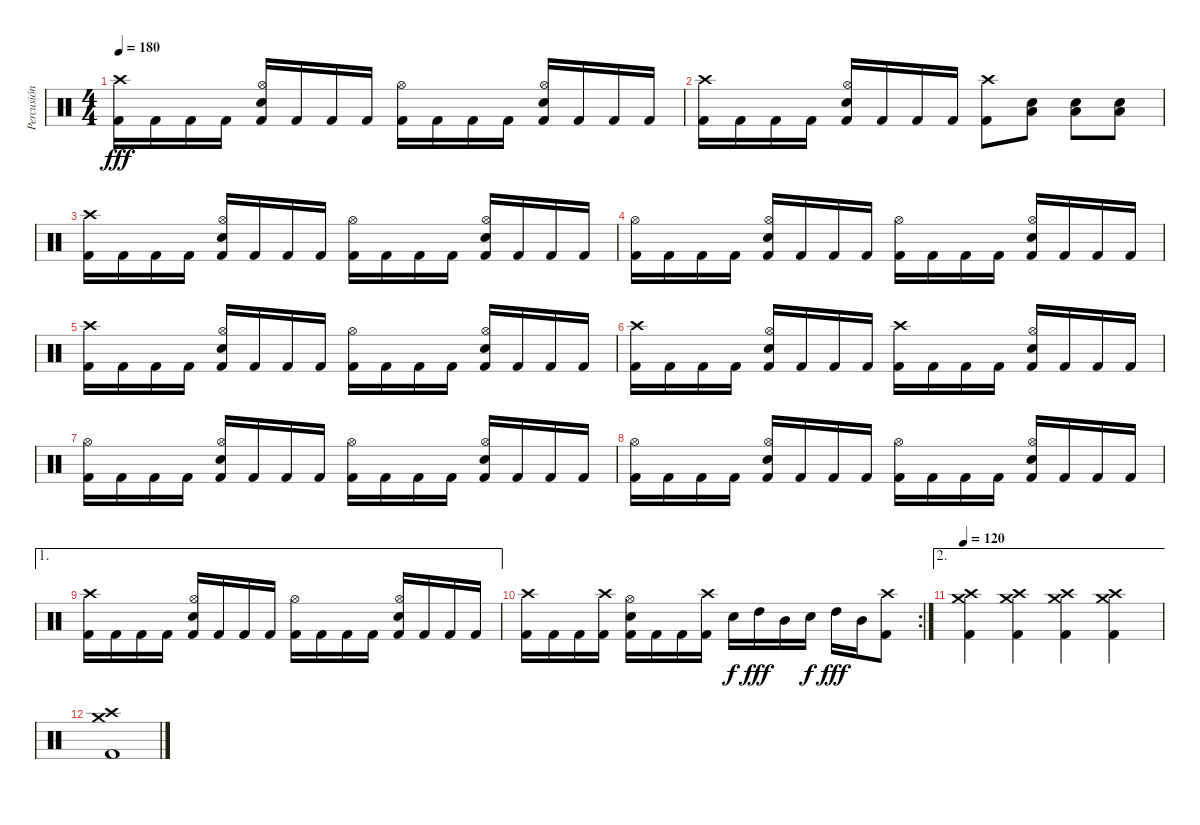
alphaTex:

\track ("Percusión" "Percusión") {instrument percussion}
\staff {score}
\articulation defaults
\ts (4 4)
\tempo 180
\clef neutral
\ks c
("Crash high (hit)" "Kick (hit) 2").16{dy fff} "Kick (hit) 2".16 "Kick (hit) 2".16 "Kick (hit) 2".16 ("Hi-Hat (open)" "Electric Snare (hit)" "Kick (hit) 2").16 "Kick (hit) 2".16 "Kick (hit) 2".16 "Kick (hit) 2".16 ("Hi-Hat (open)" "Kick (hit) 2").16 "Kick (hit) 2".16 "Kick (hit) 2".16 "Kick (hit) 2".16 ("Hi-Hat (open)" "Electric Snare (hit)" "Kick (hit) 2").16 "Kick (hit) 2".16 "Kick (hit) 2".16 "Kick (hit) 2".16 |
("Crash high (hit)" "Kick (hit) 2").16 "Kick (hit) 2".16 "Kick (hit) 2".16 "Kick (hit) 2".16 ("Hi-Hat (open)" "Electric Snare (hit)" "Kick (hit) 2").16 "Kick (hit) 2".16 "Kick (hit) 2".16 "Kick (hit) 2".16 ("Crash high (hit)" "Kick (hit) 2").8 ("Low Tom (hit)" "Electric Snare (hit)").8 ("Low Tom (hit)" "Electric Snare (hit)").8 ("Low Tom (hit)" "Electric Snare (hit)").8 |
("Crash high (hit)" "Kick (hit) 2").16 "Kick (hit) 2".16 "Kick (hit) 2".16 "Kick (hit) 2".16 ("Hi-Hat (open)" "Electric Snare (hit)" "Kick (hit) 2").16 "Kick (hit) 2".16 "Kick (hit) 2".16 "Kick (hit) 2".16 ("Hi-Hat (open)" "Kick (hit) 2").16 "Kick (hit) 2".16 "Kick (hit) 2".16 "Kick (hit) 2".16 ("Hi-Hat (open)" "Electric Snare (hit)" "Kick (hit) 2").16 "Kick (hit) 2".16 "Kick (hit) 2".16 "Kick (hit) 2".16 |
("Hi-Hat (open)" "Kick (hit) 2").16 "Kick (hit) 2".16 "Kick (hit) 2".16 "Kick (hit) 2".16 ("Hi-Hat (open)" "Electric Snare (hit)" "Kick (hit) 2").16 "Kick (hit) 2".16 "Kick (hit) 2".16 "Kick (hit) 2".16 ("Hi-Hat (open)" "Kick (hit) 2").16 "Kick (hit) 2".16 "Kick (hit) 2".16 "Kick (hit) 2".16 ("Hi-Hat (open)" "Electric Snare (hit)" "Kick (hit) 2").16 "Kick (hit) 2".16 "Kick (hit) 2".16 "Kick (hit) 2".16 |
("Crash high (hit)" "Kick (hit) 2").16 "Kick (hit) 2".16 "Kick (hit) 2".16 "Kick (hit) 2".16 ("Hi-Hat (open)" "Electric Snare (hit)" "Kick (hit) 2").16 "Kick (hit) 2".16 "Kick (hit) 2".16 "Kick (hit) 2".16 ("Hi-Hat (open)" "Kick (hit) 2").16 "Kick (hit) 2".16 "Kick (hit) 2".16 "Kick (hit) 2".16 ("Hi-Hat (open)" "Electric Snare (hit)" "Kick (hit) 2").16 "Kick (hit) 2".16 "Kick (hit) 2".16 "Kick (hit) 2".16 |
("Crash high (hit)" "Kick (hit) 2").16 "Kick (hit) 2".16 "Kick (hit) 2".16 "Kick (hit) 2".16 ("Hi-Hat (open)" "Electric Snare (hit)" "Kick (hit) 2").16 "Kick (hit) 2".16 "Kick (hit) 2".16 "Kick (hit) 2".16 ("Crash high (hit)" "Kick (hit) 2").16 "Kick (hit) 2".16 "Kick (hit) 2".16 "Kick (hit) 2".16 ("Hi-Hat (open)" "Electric Snare (hit)" "Kick (hit) 2").16 "Kick (hit) 2".16 "Kick (hit) 2".16 "Kick (hit) 2".16 |
("Hi-Hat (open)" "Kick (hit) 2").16 "Kick (hit) 2".16 "Kick (hit) 2".16 "Kick (hit) 2".16 ("Hi-Hat (open)" "Electric Snare (hit)" "Kick (hit) 2").16 "Kick (hit) 2".16 "Kick (hit) 2".16 "Kick (hit) 2".16 ("Hi-Hat (open)" "Kick (hit) 2").16 "Kick (hit) 2".16 "Kick (hit) 2".16 "Kick (hit) 2".16 ("Hi-Hat (open)" "Electric Snare (hit)" "Kick (hit) 2").16 "Kick (hit) 2".16 "Kick (hit) 2".16 "Kick (hit) 2".16 |
("Hi-Hat (open)" "Kick (hit) 2").16 "Kick (hit) 2".16 "Kick (hit) 2".16 "Kick (hit) 2".16 ("Hi-Hat (open)" "Electric Snare (hit)" "Kick (hit) 2").16 "Kick (hit) 2".16 "Kick (hit) 2".16 "Kick (hit) 2".16 ("Hi-Hat (open)" "Kick (hit) 2").16 "Kick (hit) 2".16 "Kick (hit) 2".16 "Kick (hit) 2".16 ("Hi-Hat (open)" "Electric Snare (hit)" "Kick (hit) 2").16 "Kick (hit) 2".16 "Kick (hit) 2".16 "Kick (hit) 2".16 |
\ae 1
("Crash high (hit)" "Kick (hit) 2").16 "Kick (hit) 2".16 "Kick (hit) 2".16 "Kick (hit) 2".16 ("Hi-Hat (open)" "Electric Snare (hit)" "Kick (hit) 2").16 "Kick (hit) 2".16 "Kick (hit) 2".16 "Kick (hit) 2".16 ("Hi-Hat (open)" "Kick (hit) 2").16 "Kick (hit) 2".16 "Kick (hit) 2".16 "Kick (hit) 2".16 ("Hi-Hat (open)" "Electric Snare (hit)" "Kick (hit) 2").16 "Kick (hit) 2".16 "Kick (hit) 2".16 "Kick (hit) 2".16 |
\rc 2
("Crash high (hit)" "Kick (hit) 2").16 "Kick (hit) 2".16 "Kick (hit) 2".16 ("Crash high (hit)" "Kick (hit) 2").16 ("Hi-Hat (open)" "Electric Snare (hit)" "Kick (hit) 2").16 "Kick (hit) 2".16 "Kick (hit) 2".16 ("Crash high (hit)" "Kick (hit) 2").16 "Electric Snare (hit)".16{dy f} "High Tom (hit)".16{dy fff} "Mid Tom (hit)".16 "Electric Snare (hit)".16{dy f} "High Tom (hit)".16{dy fff} "Mid Tom (hit)".16 ("Crash high (hit)" "Kick (hit) 2").8 |
\ae 2
\tempo 120
("Crash medium (hit)" "Crash high (hit)" "Kick (hit) 2").4 ("Crash medium (hit)" "Crash high (hit)" "Kick (hit) 2").4 ("Crash medium (hit)" "Crash high (hit)" "Kick (hit) 2").4 ("Crash medium (hit)" "Crash high (hit)" "Kick (hit) 2").4 |
("Crash medium (hit)" "Crash high (hit)" "Kick (hit) 2").1
